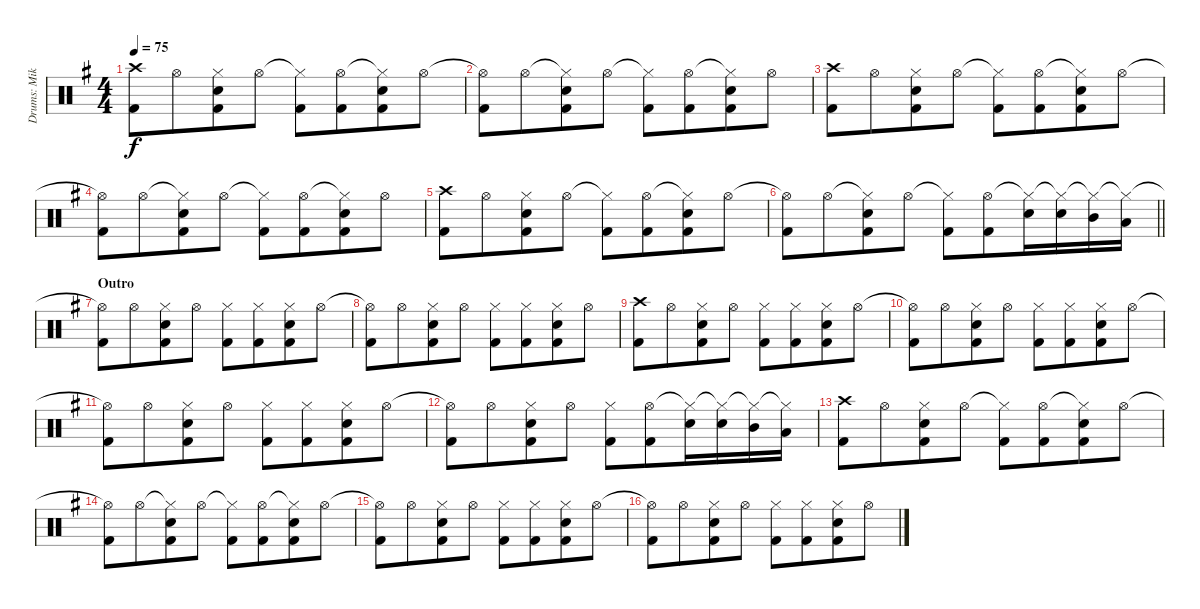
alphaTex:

\track ("Drums: Mike" "Drums: Mik") {instrument percussion}
\staff {score}
\articulation defaults
\ts (4 4)
\tempo 75
\clef neutral
\ks g
("Crash high (hit)" "Kick (hit) 2").8{dy f} "Hi-Hat (open)".8{beam merge} ("Hi-Hat (closed)" "Electric Snare (hit)" "Kick (hit) 2").8 "Hi-Hat (open)".8 ("Hi-Hat (closed)"{t} "Kick (hit) 2").8 ("Hi-Hat (open)" "Kick (hit) 2").8{beam merge} ("Hi-Hat (closed)"{t} "Electric Snare (hit)" "Kick (hit) 2").8 "Hi-Hat (open)".8 |
("Hi-Hat (open)"{t} "Kick (hit) 2").8 "Hi-Hat (open)".8{beam merge} ("Hi-Hat (closed)"{t} "Electric Snare (hit)" "Kick (hit) 2").8 "Hi-Hat (open)".8 ("Hi-Hat (closed)"{t} "Kick (hit) 2").8 ("Hi-Hat (open)" "Kick (hit) 2").8{beam merge} ("Hi-Hat (closed)"{t} "Electric Snare (hit)" "Kick (hit) 2").8 "Hi-Hat (open)".8 |
("Crash high (hit)" "Kick (hit) 2").8 "Hi-Hat (open)".8{beam merge} ("Hi-Hat (closed)" "Electric Snare (hit)" "Kick (hit) 2").8 "Hi-Hat (open)".8 ("Hi-Hat (closed)"{t} "Kick (hit) 2").8 ("Hi-Hat (open)" "Kick (hit) 2").8{beam merge} ("Hi-Hat (closed)"{t} "Electric Snare (hit)" "Kick (hit) 2").8 "Hi-Hat (open)".8 |
("Hi-Hat (open)"{t} "Kick (hit) 2").8 "Hi-Hat (open)".8{beam merge} ("Hi-Hat (closed)"{t} "Electric Snare (hit)" "Kick (hit) 2").8 "Hi-Hat (open)".8 ("Hi-Hat (closed)"{t} "Kick (hit) 2").8 ("Hi-Hat (open)" "Kick (hit) 2").8{beam merge} ("Hi-Hat (closed)"{t} "Electric Snare (hit)" "Kick (hit) 2").8 "Hi-Hat (open)".8 |
("Crash high (hit)" "Kick (hit) 2").8 "Hi-Hat (open)".8{beam merge} ("Hi-Hat (closed)" "Electric Snare (hit)" "Kick (hit) 2").8 "Hi-Hat (open)".8 ("Hi-Hat (closed)"{t} "Kick (hit) 2").8 ("Hi-Hat (open)" "Kick (hit) 2").8{beam merge} ("Hi-Hat (closed)"{t} "Electric Snare (hit)" "Kick (hit) 2").8 "Hi-Hat (open)".8 |
\barLineRight lightlight
("Hi-Hat (open)"{t} "Kick (hit) 2").8 "Hi-Hat (open)".8{beam merge} ("Hi-Hat (closed)"{t} "Electric Snare (hit)" "Kick (hit) 2").8 "Hi-Hat (open)".8 ("Hi-Hat (closed)"{t} "Kick (hit) 2").8 ("Hi-Hat (open)" "Kick (hit) 2").8{beam merge} ("Hi-Hat (closed)"{t} "Electric Snare (hit)").16{beam merge} ("Hi-Hat (closed)"{t} "Electric Snare (hit)").16{beam merge} ("Hi-Hat (closed)"{t} "Mid Tom (hit)").16{beam merge} ("Hi-Hat (closed)"{t} "Low Tom (hit)").16 |
\section ("" "Outro")
("Hi-Hat (open)"{t} "Kick (hit) 2").8 "Hi-Hat (open)".8{beam merge} ("Hi-Hat (closed)" "Electric Snare (hit)" "Kick (hit) 2").8 "Hi-Hat (open)".8 ("Hi-Hat (closed)" "Kick (hit) 2").8 ("Hi-Hat (closed)" "Kick (hit) 2").8{beam merge} ("Hi-Hat (closed)" "Electric Snare (hit)" "Kick (hit) 2").8 "Hi-Hat (open)".8 |
("Hi-Hat (open)"{t} "Kick (hit) 2").8 "Hi-Hat (open)".8{beam merge} ("Hi-Hat (closed)" "Electric Snare (hit)" "Kick (hit) 2").8 "Hi-Hat (open)".8 ("Hi-Hat (closed)" "Kick (hit) 2").8 ("Hi-Hat (closed)" "Kick (hit) 2").8{beam merge} ("Hi-Hat (closed)" "Electric Snare (hit)" "Kick (hit) 2").8 "Hi-Hat (open)".8 |
("Crash high (hit)" "Kick (hit) 2").8 "Hi-Hat (open)".8{beam merge} ("Hi-Hat (closed)" "Electric Snare (hit)" "Kick (hit) 2").8 "Hi-Hat (open)".8 ("Hi-Hat (closed)" "Kick (hit) 2").8 ("Hi-Hat (closed)" "Kick (hit) 2").8{beam merge} ("Hi-Hat (closed)" "Electric Snare (hit)" "Kick (hit) 2").8 "Hi-Hat (open)".8 |
("Hi-Hat (open)"{t} "Kick (hit) 2").8 "Hi-Hat (open)".8{beam merge} ("Hi-Hat (closed)" "Electric Snare (hit)" "Kick (hit) 2").8 "Hi-Hat (open)".8 ("Hi-Hat (closed)" "Kick (hit) 2").8 ("Hi-Hat (closed)" "Kick (hit) 2").8{beam merge} ("Hi-Hat (closed)" "Electric Snare (hit)" "Kick (hit) 2").8 "Hi-Hat (open)".8 |
("Hi-Hat (open)"{t} "Kick (hit) 2").8 "Hi-Hat (open)".8{beam merge} ("Hi-Hat (closed)" "Electric Snare (hit)" "Kick (hit) 2").8 "Hi-Hat (open)".8 ("Hi-Hat (closed)" "Kick (hit) 2").8 ("Hi-Hat (closed)" "Kick (hit) 2").8{beam merge} ("Hi-Hat (closed)" "Electric Snare (hit)" "Kick (hit) 2").8 "Hi-Hat (open)".8 |
("Hi-Hat (open)"{t} "Kick (hit) 2").8 "Hi-Hat (open)".8{beam merge} ("Hi-Hat (closed)" "Electric Snare (hit)" "Kick (hit) 2").8 "Hi-Hat (open)".8 ("Hi-Hat (closed)" "Kick (hit) 2").8 ("Hi-Hat (open)" "Kick (hit) 2").8{beam merge} ("Hi-Hat (closed)"{t} "Electric Snare (hit)").16{beam merge} ("Hi-Hat (closed)"{t} "Electric Snare (hit)").16{beam merge} ("Hi-Hat (closed)"{t} "Mid Tom (hit)").16{beam merge} ("Hi-Hat (closed)"{t} "Low Tom (hit)").16 |
("Crash high (hit)" "Kick (hit) 2").8 "Hi-Hat (open)".8{beam merge} ("Hi-Hat (closed)" "Electric Snare (hit)" "Kick (hit) 2").8 "Hi-Hat (open)".8 ("Hi-Hat (closed)"{t} "Kick (hit) 2").8 ("Hi-Hat (open)" "Kick (hit) 2").8{beam merge} ("Hi-Hat (closed)"{t} "Electric Snare (hit)" "Kick (hit) 2").8 "Hi-Hat (open)".8 |
("Hi-Hat (open)"{t} "Kick (hit) 2").8 "Hi-Hat (open)".8{beam merge} ("Hi-Hat (closed)"{t} "Electric Snare (hit)" "Kick (hit) 2").8 "Hi-Hat (open)".8 ("Hi-Hat (closed)"{t} "Kick (hit) 2").8 ("Hi-Hat (open)" "Kick (hit) 2").8{beam merge} ("Hi-Hat (closed)"{t} "Electric Snare (hit)" "Kick (hit) 2").8 "Hi-Hat (open)".8 |
("Hi-Hat (open)"{t} "Kick (hit) 2").8 "Hi-Hat (open)".8{beam merge} ("Hi-Hat (closed)" "Electric Snare (hit)" "Kick (hit) 2").8 "Hi-Hat (open)".8 ("Hi-Hat (closed)" "Kick (hit) 2").8 ("Hi-Hat (closed)" "Kick (hit) 2").8{beam merge} ("Hi-Hat (closed)" "Electric Snare (hit)" "Kick (hit) 2").8 "Hi-Hat (open)".8 |
("Hi-Hat (open)"{t} "Kick (hit) 2").8 "Hi-Hat (open)".8{beam merge} ("Hi-Hat (closed)" "Electric Snare (hit)" "Kick (hit) 2").8 "Hi-Hat (open)".8 ("Hi-Hat (closed)" "Kick (hit) 2").8 ("Hi-Hat (closed)" "Kick (hit) 2").8{beam merge} ("Hi-Hat (closed)" "Electric Snare (hit)" "Kick (hit) 2").8 "Hi-Hat (open)".8
